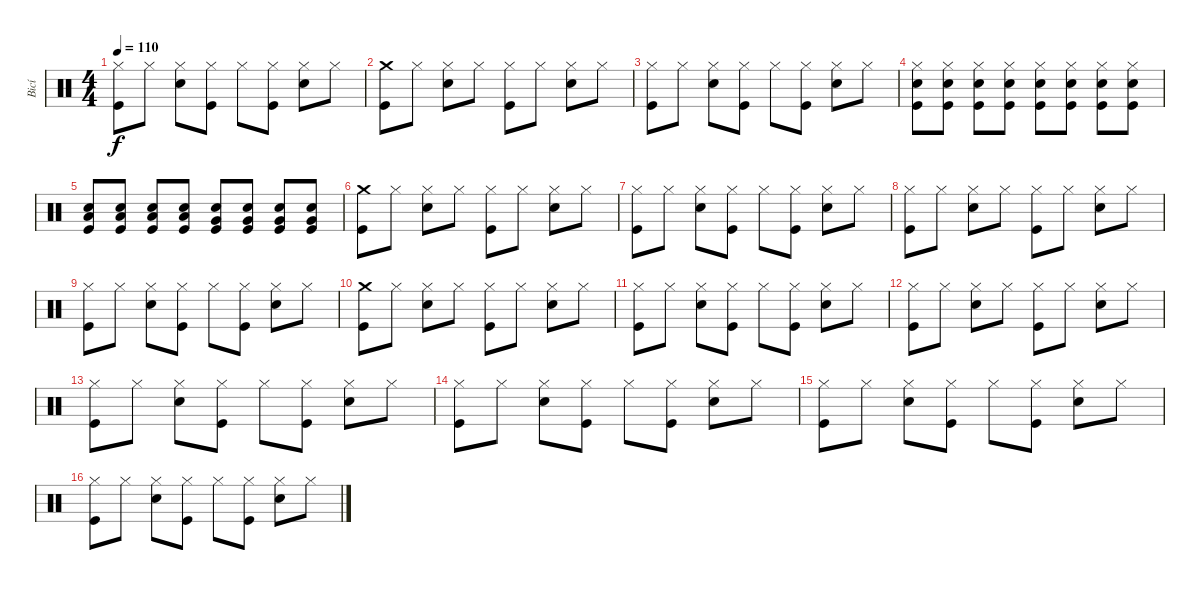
\track ("Bicí" "Bicí") {instrument percussion}
\staff
\articulation defaults
\ts (4 4)
\tempo 110
\clef neutral
\ks c
("Hi-Hat (closed)" "Kick (hit)").8{dy f} "Hi-Hat (closed)".8 ("Hi-Hat (closed)" "Snare (hit) 2").8 ("Hi-Hat (closed)" "Kick (hit)").8 "Hi-Hat (closed)".8 ("Hi-Hat (closed)" "Kick (hit)").8 ("Hi-Hat (closed)" "Snare (hit) 2").8 "Hi-Hat (closed)".8 |
("Crash medium (hit)" "Kick (hit)").8 "Hi-Hat (closed)".8 ("Hi-Hat (closed)" "Snare (hit) 2").8 "Hi-Hat (closed)".8 ("Hi-Hat (closed)" "Kick (hit)").8 "Hi-Hat (closed)".8 ("Hi-Hat (closed)" "Snare (hit) 2").8 "Hi-Hat (closed)".8 |
("Hi-Hat (closed)" "Kick (hit)").8 "Hi-Hat (closed)".8 ("Hi-Hat (closed)" "Snare (hit) 2").8 ("Hi-Hat (closed)" "Kick (hit)").8 "Hi-Hat (closed)".8 ("Hi-Hat (closed)" "Kick (hit)").8 ("Hi-Hat (closed)" "Snare (hit) 2").8 "Hi-Hat (closed)".8 |
("Hi-Hat (closed)" "Snare (hit) 2" "Kick (hit)").8 ("Hi-Hat (closed)" "Snare (hit) 2" "Kick (hit)").8 ("Hi-Hat (closed)" "Snare (hit) 2" "Kick (hit)").8 ("Hi-Hat (closed)" "Snare (hit) 2" "Kick (hit)").8 ("Hi-Hat (closed)" "Snare (hit) 2" "Kick (hit)").8 ("Hi-Hat (closed)" "Snare (hit) 2" "Kick (hit)").8 ("Hi-Hat (closed)" "Snare (hit) 2" "Kick (hit)").8 ("Hi-Hat (closed)" "Snare (hit) 2" "Kick (hit)").8 |
("Low Tom (hit)" "Snare (hit) 2" "Kick (hit)").8 ("Low Tom (hit)" "Snare (hit) 2" "Kick (hit)").8 ("Low Tom (hit)" "Snare (hit) 2" "Kick (hit)").8 ("Low Tom (hit)" "Snare (hit) 2" "Kick (hit)").8 ("Very Low Tom (hit)" "Snare (hit) 2" "Kick (hit)").8 ("Very Low Tom (hit)" "Snare (hit) 2" "Kick (hit)").8 ("Very Low Tom (hit)" "Snare (hit) 2" "Kick (hit)").8 ("Very Low Tom (hit)" "Snare (hit) 2" "Kick (hit)").8 |
("Crash medium (hit)" "Kick (hit)").8 "Hi-Hat (closed)".8 ("Hi-Hat (closed)" "Snare (hit) 2").8 "Hi-Hat (closed)".8 ("Hi-Hat (closed)" "Kick (hit)").8 "Hi-Hat (closed)".8 ("Hi-Hat (closed)" "Snare (hit) 2").8 "Hi-Hat (closed)".8 |
("Hi-Hat (closed)" "Kick (hit)").8 "Hi-Hat (closed)".8 ("Hi-Hat (closed)" "Snare (hit) 2").8 ("Hi-Hat (closed)" "Kick (hit)").8 "Hi-Hat (closed)".8 ("Hi-Hat (closed)" "Kick (hit)").8 ("Hi-Hat (closed)" "Snare (hit) 2").8 "Hi-Hat (closed)".8 |
("Hi-Hat (closed)" "Kick (hit)").8 "Hi-Hat (closed)".8 ("Hi-Hat (closed)" "Snare (hit) 2").8 "Hi-Hat (closed)".8 ("Hi-Hat (closed)" "Kick (hit)").8 "Hi-Hat (closed)".8 ("Hi-Hat (closed)" "Snare (hit) 2").8 "Hi-Hat (closed)".8 |
("Hi-Hat (closed)" "Kick (hit)").8 "Hi-Hat (closed)".8 ("Hi-Hat (closed)" "Snare (hit) 2").8 ("Hi-Hat (closed)" "Kick (hit)").8 "Hi-Hat (closed)".8 ("Hi-Hat (closed)" "Kick (hit)").8 ("Hi-Hat (closed)" "Snare (hit) 2").8 "Hi-Hat (closed)".8 |
("Crash medium (hit)" "Kick (hit)").8 "Hi-Hat (closed)".8 ("Hi-Hat (closed)" "Snare (hit) 2").8 "Hi-Hat (closed)".8 ("Hi-Hat (closed)" "Kick (hit)").8 "Hi-Hat (closed)".8 ("Hi-Hat (closed)" "Snare (hit) 2").8 "Hi-Hat (closed)".8 |
("Hi-Hat (closed)" "Kick (hit)").8 "Hi-Hat (closed)".8 ("Hi-Hat (closed)" "Snare (hit) 2").8 ("Hi-Hat (closed)" "Kick (hit)").8 "Hi-Hat (closed)".8 ("Hi-Hat (closed)" "Kick (hit)").8 ("Hi-Hat (closed)" "Snare (hit) 2").8 "Hi-Hat (closed)".8 |
("Hi-Hat (closed)" "Kick (hit)").8 "Hi-Hat (closed)".8 ("Hi-Hat (closed)" "Snare (hit) 2").8 "Hi-Hat (closed)".8 ("Hi-Hat (closed)" "Kick (hit)").8 "Hi-Hat (closed)".8 ("Hi-Hat (closed)" "Snare (hit) 2").8 "Hi-Hat (closed)".8 |
("Hi-Hat (closed)" "Kick (hit)").8 "Hi-Hat (closed)".8 ("Hi-Hat (closed)" "Snare (hit) 2").8 ("Hi-Hat (closed)" "Kick (hit)").8 "Hi-Hat (closed)".8 ("Hi-Hat (closed)" "Kick (hit)").8 ("Hi-Hat (closed)" "Snare (hit) 2").8 "Hi-Hat (closed)".8 |
("Hi-Hat (closed)" "Kick (hit)").8 "Hi-Hat (closed)".8 ("Hi-Hat (closed)" "Snare (hit) 2").8 ("Hi-Hat (closed)" "Kick (hit)").8 "Hi-Hat (closed)".8 ("Hi-Hat (closed)" "Kick (hit)").8 ("Hi-Hat (closed)" "Snare (hit) 2").8 "Hi-Hat (closed)".8 |
("Hi-Hat (closed)" "Kick (hit)").8 "Hi-Hat (closed)".8 ("Hi-Hat (closed)" "Snare (hit) 2").8 ("Hi-Hat (closed)" "Kick (hit)").8 "Hi-Hat (closed)".8 ("Hi-Hat (closed)" "Kick (hit)").8 ("Hi-Hat (closed)" "Snare (hit) 2").8 "Hi-Hat (closed)".8 |
("Hi-Hat (closed)" "Kick (hit)").8 "Hi-Hat (closed)".8 ("Hi-Hat (closed)" "Snare (hit) 2").8 ("Hi-Hat (closed)" "Kick (hit)").8 "Hi-Hat (closed)".8 ("Hi-Hat (closed)" "Kick (hit)").8 ("Hi-Hat (closed)" "Snare (hit) 2").8 "Hi-Hat (closed)".8
